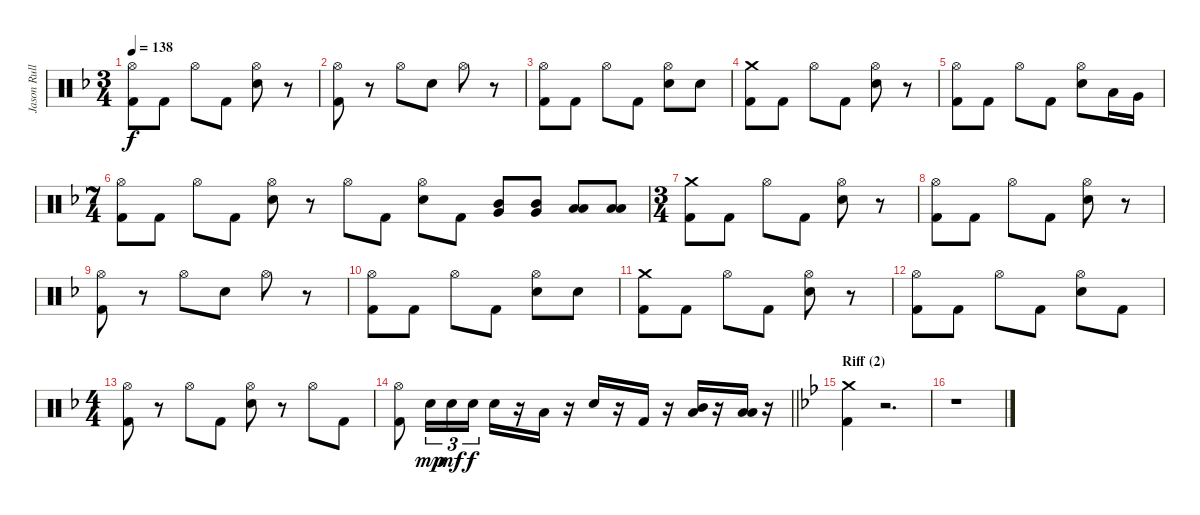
\track ("Jason Rullo (drums)" "Jason Rull") {instrument percussion}
\staff {score}
\articulation defaults
\ts (3 4)
\tempo 138
\clef neutral
\ks dminor
("Hi-Hat (open)" "Kick (hit) 2").8{dy f} "Kick (hit) 2".8 "Hi-Hat (open)".8 "Kick (hit) 2".8 ("Hi-Hat (open)" "Electric Snare (hit)").8 r.8 |
("Hi-Hat (open)" "Kick (hit) 2").8 r.8 "Hi-Hat (open)".8 "Electric Snare (hit)".8 "Hi-Hat (open)".8 r.8 |
("Hi-Hat (open)" "Kick (hit) 2").8 "Kick (hit) 2".8 "Hi-Hat (open)".8 "Kick (hit) 2".8 ("Hi-Hat (open)" "Electric Snare (hit)").8 "Electric Snare (hit)".8 |
("Crash medium (hit)" "Kick (hit) 2").8 "Kick (hit) 2".8 "Hi-Hat (open)".8 "Kick (hit) 2".8 ("Hi-Hat (open)" "Electric Snare (hit)").8 r.8 |
("Hi-Hat (open)" "Kick (hit) 2").8 "Kick (hit) 2".8 "Hi-Hat (open)".8 "Kick (hit) 2".8 ("Hi-Hat (open)" "Electric Snare (hit)").8 "Low Tom (hit)".16 "Very Low Tom (hit)".16 |
\ts (7 4)
("Hi-Hat (open)" "Kick (hit) 2").8 "Kick (hit) 2".8 "Hi-Hat (open)".8 "Kick (hit) 2".8 ("Hi-Hat (open)" "Electric Snare (hit)").8 r.8 "Hi-Hat (open)".8 "Kick (hit) 2".8 ("Hi-Hat (open)" "Electric Snare (hit)").8 "Kick (hit) 2".8 ("Mid Tom (hit)" "Very Low Tom (hit)").8 ("Mid Tom (hit)" "Very Low Tom (hit)").8 ("Low Tom (hit)" "Low Floor Tom (hit)").8 ("Low Tom (hit)" "Low Floor Tom (hit)").8 |
\ts (3 4)
("Crash medium (hit)" "Kick (hit) 2").8 "Kick (hit) 2".8 "Hi-Hat (open)".8 "Kick (hit) 2".8 ("Hi-Hat (open)" "Electric Snare (hit)").8 r.8 |
("Hi-Hat (open)" "Kick (hit) 2").8 "Kick (hit) 2".8 "Hi-Hat (open)".8 "Kick (hit) 2".8 ("Hi-Hat (open)" "Electric Snare (hit)").8 r.8 |
("Hi-Hat (open)" "Kick (hit) 2").8 r.8 "Hi-Hat (open)".8 "Electric Snare (hit)".8 "Hi-Hat (open)".8 r.8 |
("Hi-Hat (open)" "Kick (hit) 2").8 "Kick (hit) 2".8 "Hi-Hat (open)".8 "Kick (hit) 2".8 ("Hi-Hat (open)" "Electric Snare (hit)").8 "Electric Snare (hit)".8 |
("Crash medium (hit)" "Kick (hit) 2").8 "Kick (hit) 2".8 "Hi-Hat (open)".8 "Kick (hit) 2".8 ("Hi-Hat (open)" "Electric Snare (hit)").8 r.8 |
("Hi-Hat (open)" "Kick (hit) 2").8 "Kick (hit) 2".8 "Hi-Hat (open)".8 "Kick (hit) 2".8 ("Hi-Hat (open)" "Electric Snare (hit)").8 "Kick (hit) 2".8 |
\ts (4 4)
("Hi-Hat (open)" "Kick (hit) 2").8 r.8 "Hi-Hat (open)".8 "Kick (hit) 2".8 ("Hi-Hat (open)" "Electric Snare (hit)").8 r.8 "Hi-Hat (open)".8 "Kick (hit) 2".8 |
\barLineRight lightlight
("Hi-Hat (open)" "Kick (hit) 2").8 "Electric Snare (hit)".16{tu (3 2) dy mp} "Electric Snare (hit)".16{tu (3 2) dy mf} "Electric Snare (hit)".16{tu (3 2) dy f} "Electric Snare (hit)".16 r.16 "Low Tom (hit)".16 r.16 "Electric Snare (hit)".16 r.16 "Kick (hit) 2".16 r.16 ("Mid Tom (hit)" "Low Floor Tom (hit)").16 r.16 ("Low Tom (hit)" "Low Floor Tom (hit)").16 r.16 |
\section ("" "Riff (2)")
\ks gminor
("Crash medium (hit)" "Kick (hit) 2").4{volume 15 balance 8} r.2{d} |
r.1
